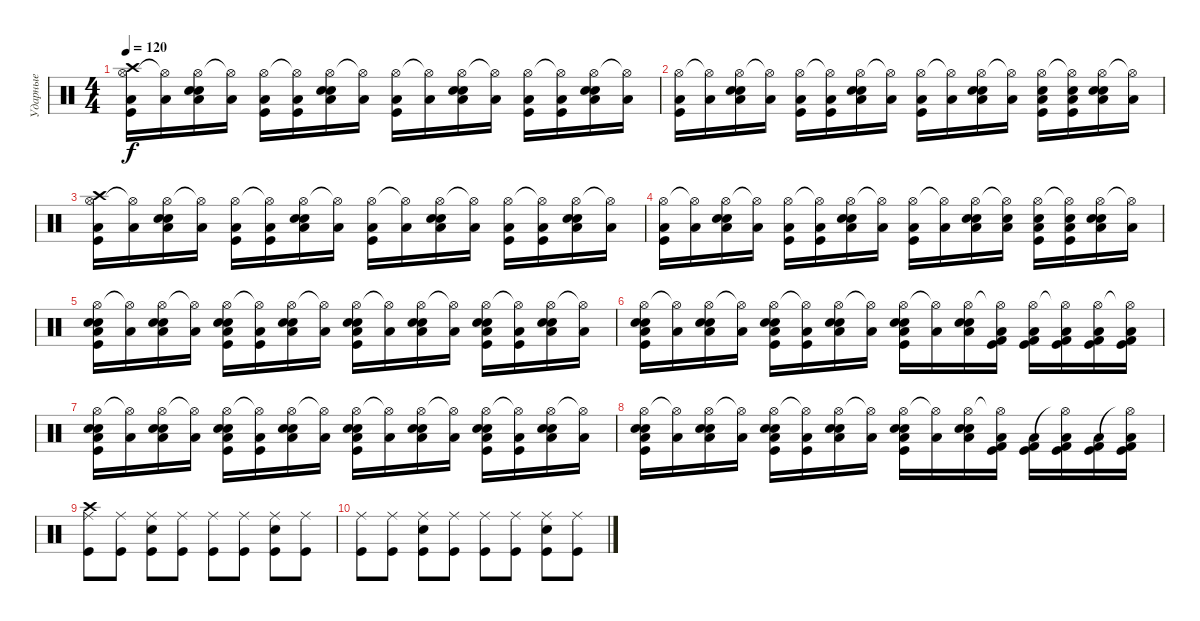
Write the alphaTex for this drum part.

\track ("Ударные" "Ударные") {instrument percussion}
\staff {score}
\articulation defaults
\ts (4 4)
\tempo 120
\clef neutral
\ks c
("Hi-Hat (open)" "Crash high (hit)" "Kick (hit)" "Low Floor Tom (hit)").16{dy f} ("Hi-Hat (open)"{t} "Low Floor Tom (hit)").16 ("Hi-Hat (open)" "Electric Snare (hit)" "Electric Snare (hit)" "Low Floor Tom (hit)").16 ("Hi-Hat (open)"{t} "Low Floor Tom (hit)").16 ("Hi-Hat (open)" "Kick (hit)" "Low Floor Tom (hit)").16 ("Hi-Hat (open)"{t} "Kick (hit)" "Low Floor Tom (hit)").16 ("Hi-Hat (open)" "Electric Snare (hit)" "Electric Snare (hit)" "Low Floor Tom (hit)").16 ("Hi-Hat (open)"{t} "Low Floor Tom (hit)").16 ("Hi-Hat (open)" "Kick (hit)" "Low Floor Tom (hit)").16 ("Hi-Hat (open)"{t} "Low Floor Tom (hit)").16 ("Hi-Hat (open)" "Electric Snare (hit)" "Electric Snare (hit)" "Low Floor Tom (hit)").16 ("Hi-Hat (open)"{t} "Low Floor Tom (hit)").16 ("Hi-Hat (open)" "Kick (hit)" "Low Floor Tom (hit)").16 ("Hi-Hat (open)"{t} "Kick (hit)" "Low Floor Tom (hit)").16 ("Hi-Hat (open)" "Electric Snare (hit)" "Electric Snare (hit)" "Low Floor Tom (hit)").16 ("Hi-Hat (open)"{t} "Low Floor Tom (hit)").16 |
("Hi-Hat (open)" "Kick (hit)" "Low Floor Tom (hit)").16 ("Hi-Hat (open)"{t} "Low Floor Tom (hit)").16 ("Hi-Hat (open)" "Electric Snare (hit)" "Electric Snare (hit)" "Low Floor Tom (hit)").16 ("Hi-Hat (open)"{t} "Low Floor Tom (hit)").16 ("Hi-Hat (open)" "Kick (hit)" "Low Floor Tom (hit)").16 ("Hi-Hat (open)"{t} "Kick (hit)" "Low Floor Tom (hit)").16 ("Hi-Hat (open)" "Electric Snare (hit)" "Electric Snare (hit)" "Low Floor Tom (hit)").16 ("Hi-Hat (open)"{t} "Low Floor Tom (hit)").16 ("Hi-Hat (open)" "Kick (hit)" "Low Floor Tom (hit)").16 ("Hi-Hat (open)"{t} "Low Floor Tom (hit)").16 ("Hi-Hat (open)" "Electric Snare (hit)" "Electric Snare (hit)" "Low Floor Tom (hit)").16 ("Hi-Hat (open)"{t} "Low Floor Tom (hit)").16 ("Hi-Hat (open)" "Electric Snare (hit)" "Kick (hit)" "Low Floor Tom (hit)").16 ("Hi-Hat (open)"{t} "Electric Snare (hit)" "Kick (hit)" "Low Floor Tom (hit)").16 ("Hi-Hat (open)" "Electric Snare (hit)" "Electric Snare (hit)" "Low Floor Tom (hit)").16 ("Hi-Hat (open)"{t} "Low Floor Tom (hit)").16 |
("Hi-Hat (open)" "Crash high (hit)" "Kick (hit)" "Low Floor Tom (hit)").16 ("Hi-Hat (open)"{t} "Low Floor Tom (hit)").16 ("Hi-Hat (open)" "Electric Snare (hit)" "Electric Snare (hit)" "Low Floor Tom (hit)").16 ("Hi-Hat (open)"{t} "Low Floor Tom (hit)").16 ("Hi-Hat (open)" "Kick (hit)" "Low Floor Tom (hit)").16 ("Hi-Hat (open)"{t} "Kick (hit)" "Low Floor Tom (hit)").16 ("Hi-Hat (open)" "Electric Snare (hit)" "Electric Snare (hit)" "Low Floor Tom (hit)").16 ("Hi-Hat (open)"{t} "Low Floor Tom (hit)").16 ("Hi-Hat (open)" "Kick (hit)" "Low Floor Tom (hit)").16 ("Hi-Hat (open)"{t} "Low Floor Tom (hit)").16 ("Hi-Hat (open)" "Electric Snare (hit)" "Electric Snare (hit)" "Low Floor Tom (hit)").16 ("Hi-Hat (open)"{t} "Low Floor Tom (hit)").16 ("Hi-Hat (open)" "Kick (hit)" "Low Floor Tom (hit)").16 ("Hi-Hat (open)"{t} "Kick (hit)" "Low Floor Tom (hit)").16 ("Hi-Hat (open)" "Electric Snare (hit)" "Electric Snare (hit)" "Low Floor Tom (hit)").16 ("Hi-Hat (open)"{t} "Low Floor Tom (hit)").16 |
("Hi-Hat (open)" "Kick (hit)" "Low Floor Tom (hit)").16 ("Hi-Hat (open)"{t} "Low Floor Tom (hit)").16 ("Hi-Hat (open)" "Electric Snare (hit)" "Electric Snare (hit)" "Low Floor Tom (hit)").16 ("Hi-Hat (open)"{t} "Low Floor Tom (hit)").16 ("Hi-Hat (open)" "Kick (hit)" "Low Floor Tom (hit)").16 ("Hi-Hat (open)"{t} "Kick (hit)" "Low Floor Tom (hit)").16 ("Hi-Hat (open)" "Electric Snare (hit)" "Electric Snare (hit)" "Low Floor Tom (hit)").16 ("Hi-Hat (open)"{t} "Low Floor Tom (hit)").16 ("Hi-Hat (open)" "Kick (hit)" "Low Floor Tom (hit)").16 ("Hi-Hat (open)"{t} "Low Floor Tom (hit)").16 ("Hi-Hat (open)" "Electric Snare (hit)" "Electric Snare (hit)" "Low Floor Tom (hit)").16 ("Hi-Hat (open)"{t} "Electric Snare (hit)" "Low Floor Tom (hit)").16 ("Hi-Hat (open)" "Electric Snare (hit)" "Kick (hit)" "Low Floor Tom (hit)").16 ("Hi-Hat (open)"{t} "Electric Snare (hit)" "Kick (hit)" "Low Floor Tom (hit)").16 ("Hi-Hat (open)" "Electric Snare (hit)" "Electric Snare (hit)" "Low Floor Tom (hit)").16 ("Hi-Hat (open)"{t} "Low Floor Tom (hit)").16 |
("Hi-Hat (open)" "Electric Snare (hit)" "Electric Snare (hit)" "Kick (hit)" "Low Floor Tom (hit)").16 ("Hi-Hat (open)"{t} "Low Floor Tom (hit)").16 ("Hi-Hat (open)" "Electric Snare (hit)" "Electric Snare (hit)" "Low Floor Tom (hit)").16 ("Hi-Hat (open)"{t} "Low Floor Tom (hit)").16 ("Hi-Hat (open)" "Electric Snare (hit)" "Electric Snare (hit)" "Kick (hit)" "Low Floor Tom (hit)").16 ("Hi-Hat (open)"{t} "Kick (hit)" "Low Floor Tom (hit)").16 ("Hi-Hat (open)" "Electric Snare (hit)" "Electric Snare (hit)" "Low Floor Tom (hit)").16 ("Hi-Hat (open)"{t} "Low Floor Tom (hit)").16 ("Hi-Hat (open)" "Electric Snare (hit)" "Electric Snare (hit)" "Kick (hit)" "Low Floor Tom (hit)").16 ("Hi-Hat (open)"{t} "Low Floor Tom (hit)").16 ("Hi-Hat (open)" "Electric Snare (hit)" "Electric Snare (hit)" "Low Floor Tom (hit)").16 ("Hi-Hat (open)"{t} "Low Floor Tom (hit)").16 ("Hi-Hat (open)" "Electric Snare (hit)" "Electric Snare (hit)" "Kick (hit)" "Low Floor Tom (hit)").16 ("Hi-Hat (open)"{t} "Kick (hit)" "Low Floor Tom (hit)").16 ("Hi-Hat (open)" "Electric Snare (hit)" "Electric Snare (hit)" "Low Floor Tom (hit)").16 ("Hi-Hat (open)"{t} "Low Floor Tom (hit)").16 |
("Hi-Hat (open)" "Electric Snare (hit)" "Electric Snare (hit)" "Kick (hit)" "Low Floor Tom (hit)").16 ("Hi-Hat (open)"{t} "Low Floor Tom (hit)").16 ("Hi-Hat (open)" "Electric Snare (hit)" "Electric Snare (hit)" "Low Floor Tom (hit)").16 ("Hi-Hat (open)"{t} "Low Floor Tom (hit)").16 ("Hi-Hat (open)" "Electric Snare (hit)" "Electric Snare (hit)" "Kick (hit)" "Low Floor Tom (hit)").16 ("Hi-Hat (open)"{t} "Kick (hit)" "Low Floor Tom (hit)").16 ("Hi-Hat (open)" "Electric Snare (hit)" "Electric Snare (hit)" "Low Floor Tom (hit)").16 ("Hi-Hat (open)"{t} "Low Floor Tom (hit)").16 ("Hi-Hat (open)" "Electric Snare (hit)" "Electric Snare (hit)" "Kick (hit)" "Low Floor Tom (hit)").16 ("Hi-Hat (open)"{t} "Low Floor Tom (hit)").16 ("Hi-Hat (open)" "Electric Snare (hit)" "Electric Snare (hit)" "Low Floor Tom (hit)").16 ("Hi-Hat (open)"{t} "Kick (hit) 2" "Kick (hit)" "Low Floor Tom (hit)").16 ("Hi-Hat (open)" "Kick (hit) 2" "Kick (hit)" "Low Floor Tom (hit)").16 ("Hi-Hat (open)"{t} "Kick (hit) 2" "Kick (hit)" "Low Floor Tom (hit)").16 ("Hi-Hat (open)" "Kick (hit) 2" "Kick (hit)" "Low Floor Tom (hit)").16 ("Hi-Hat (open)"{t} "Kick (hit) 2" "Kick (hit)" "Low Floor Tom (hit)").16 |
("Hi-Hat (open)" "Electric Snare (hit)" "Electric Snare (hit)" "Kick (hit)" "Low Floor Tom (hit)").16 ("Hi-Hat (open)"{t} "Low Floor Tom (hit)").16 ("Hi-Hat (open)" "Electric Snare (hit)" "Electric Snare (hit)" "Low Floor Tom (hit)").16 ("Hi-Hat (open)"{t} "Low Floor Tom (hit)").16 ("Hi-Hat (open)" "Electric Snare (hit)" "Electric Snare (hit)" "Kick (hit)" "Low Floor Tom (hit)").16 ("Hi-Hat (open)"{t} "Kick (hit)" "Low Floor Tom (hit)").16 ("Hi-Hat (open)" "Electric Snare (hit)" "Electric Snare (hit)" "Low Floor Tom (hit)").16 ("Hi-Hat (open)"{t} "Low Floor Tom (hit)").16 ("Hi-Hat (open)" "Electric Snare (hit)" "Electric Snare (hit)" "Kick (hit)" "Low Floor Tom (hit)").16 ("Hi-Hat (open)"{t} "Low Floor Tom (hit)").16 ("Hi-Hat (open)" "Electric Snare (hit)" "Electric Snare (hit)" "Low Floor Tom (hit)").16 ("Hi-Hat (open)"{t} "Low Floor Tom (hit)").16 ("Hi-Hat (open)" "Electric Snare (hit)" "Electric Snare (hit)" "Kick (hit)" "Low Floor Tom (hit)").16 ("Hi-Hat (open)"{t} "Kick (hit)" "Low Floor Tom (hit)").16 ("Hi-Hat (open)" "Electric Snare (hit)" "Electric Snare (hit)" "Low Floor Tom (hit)").16 ("Hi-Hat (open)"{t} "Low Floor Tom (hit)").16 |
("Hi-Hat (open)" "Electric Snare (hit)" "Electric Snare (hit)" "Kick (hit)" "Low Floor Tom (hit)").16 ("Hi-Hat (open)"{t} "Low Floor Tom (hit)").16 ("Hi-Hat (open)" "Electric Snare (hit)" "Electric Snare (hit)" "Low Floor Tom (hit)").16 ("Hi-Hat (open)"{t} "Low Floor Tom (hit)").16 ("Hi-Hat (open)" "Electric Snare (hit)" "Electric Snare (hit)" "Kick (hit)" "Low Floor Tom (hit)").16 ("Hi-Hat (open)"{t} "Kick (hit)" "Low Floor Tom (hit)").16 ("Hi-Hat (open)" "Electric Snare (hit)" "Electric Snare (hit)" "Low Floor Tom (hit)").16 ("Hi-Hat (open)"{t} "Low Floor Tom (hit)").16 ("Hi-Hat (open)" "Electric Snare (hit)" "Electric Snare (hit)" "Kick (hit)" "Low Floor Tom (hit)").16 ("Hi-Hat (open)"{t} "Low Floor Tom (hit)").16 ("Hi-Hat (open)" "Electric Snare (hit)" "Electric Snare (hit)" "Low Floor Tom (hit)").16 ("Hi-Hat (open)"{t} "Kick (hit) 2" "Kick (hit)" "Low Floor Tom (hit)").16 ("Kick (hit) 2" "Kick (hit)" "Low Floor Tom (hit)").16 ("Hi-Hat (open)"{t} "Kick (hit) 2" "Kick (hit)" "Low Floor Tom (hit)").16 ("Kick (hit) 2" "Kick (hit)" "Low Floor Tom (hit)").16 ("Hi-Hat (open)"{t} "Kick (hit) 2" "Kick (hit)" "Low Floor Tom (hit)").16 |
("Ride (middle)" "Crash high (hit)" "Kick (hit)").8 ("Ride (middle)" "Kick (hit)").8 ("Ride (middle)" "Kick (hit)" "Electric Snare (hit)").8 ("Ride (middle)" "Kick (hit)").8 ("Ride (middle)" "Kick (hit)").8 ("Ride (middle)" "Kick (hit)").8 ("Ride (middle)" "Kick (hit)" "Electric Snare (hit)").8 ("Ride (middle)" "Kick (hit)").8 |
("Ride (middle)" "Kick (hit)").8 ("Ride (middle)" "Kick (hit)").8 ("Ride (middle)" "Kick (hit)" "Electric Snare (hit)").8 ("Ride (middle)" "Kick (hit)").8 ("Ride (middle)" "Kick (hit)").8 ("Ride (middle)" "Kick (hit)").8 ("Ride (middle)" "Kick (hit)" "Electric Snare (hit)").8 ("Ride (middle)" "Kick (hit)").8
